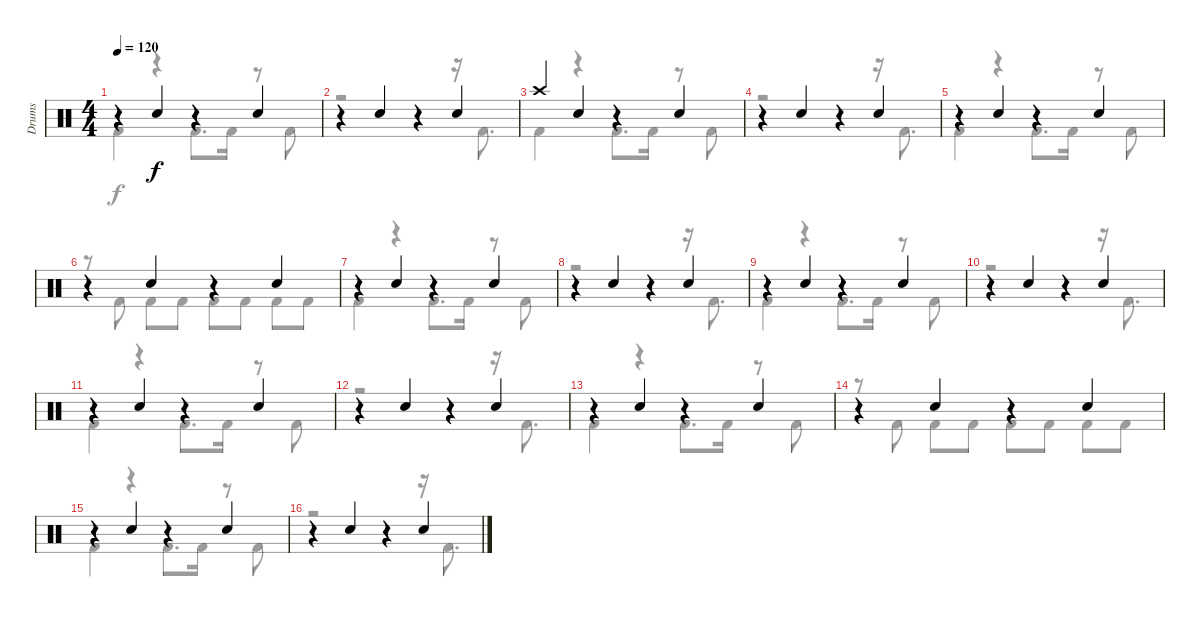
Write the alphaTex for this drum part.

\track ("Drums" "Drums") {instrument percussion}
\staff {score}
\articulation defaults
\voice
\ts (4 4)
\tempo 120
\clef neutral
\ks c
r.4{dy f} "Electric Snare (hit)".4 r.4 "Electric Snare (hit)".4 |
r.4 "Electric Snare (hit)".4 r.4 "Electric Snare (hit)".4 |
"Crash high (hit)".4 "Electric Snare (hit)".4 r.4 "Electric Snare (hit)".4 |
r.4 "Electric Snare (hit)".4 r.4 "Electric Snare (hit)".4 |
r.4 "Electric Snare (hit)".4 r.4 "Electric Snare (hit)".4 |
r.4 "Electric Snare (hit)".4 r.4 "Electric Snare (hit)".4 |
r.4 "Electric Snare (hit)".4 r.4 "Electric Snare (hit)".4 |
r.4 "Electric Snare (hit)".4 r.4 "Electric Snare (hit)".4 |
r.4 "Electric Snare (hit)".4 r.4 "Electric Snare (hit)".4 |
r.4 "Electric Snare (hit)".4 r.4 "Electric Snare (hit)".4 |
r.4 "Electric Snare (hit)".4 r.4 "Electric Snare (hit)".4 |
r.4 "Electric Snare (hit)".4 r.4 "Electric Snare (hit)".4 |
r.4 "Electric Snare (hit)".4 r.4 "Electric Snare (hit)".4 |
r.4 "Electric Snare (hit)".4 r.4 "Electric Snare (hit)".4 |
r.4 "Electric Snare (hit)".4 r.4 "Electric Snare (hit)".4 |
r.4 "Electric Snare (hit)".4 r.4 "Electric Snare (hit)".4
\voice
\clef neutral
\ottava regular
\simile none
\ks c "Kick (hit) 2".4{dy f}
r.4 "Kick (hit) 2".8{d} "Kick (hit) 2".16 r.8 "Kick (hit) 2".8 |
r.2 r.4 r.16 "Kick (hit) 2".8{d} |
"Kick (hit) 2".4 r.4 "Kick (hit) 2".8{d} "Kick (hit) 2".16 r.8 "Kick (hit) 2".8 |
r.2 r.4 r.16 "Kick (hit) 2".8{d} |
"Kick (hit) 2".4 r.4 "Kick (hit) 2".8{d} "Kick (hit) 2".16 r.8 "Kick (hit) 2".8 |
r.8 "Kick (hit) 2".8 "Kick (hit) 2".8 "Kick (hit) 2".8 "Kick (hit) 2".8 "Kick (hit) 2".8 "Kick (hit) 2".8 "Kick (hit) 2".8 |
"Kick (hit) 2".4 r.4 "Kick (hit) 2".8{d} "Kick (hit) 2".16 r.8 "Kick (hit) 2".8 |
r.2 r.4 r.16 "Kick (hit) 2".8{d} |
"Kick (hit) 2".4 r.4 "Kick (hit) 2".8{d} "Kick (hit) 2".16 r.8 "Kick (hit) 2".8 |
r.2 r.4 r.16 "Kick (hit) 2".8{d} |
"Kick (hit) 2".4 r.4 "Kick (hit) 2".8{d} "Kick (hit) 2".16 r.8 "Kick (hit) 2".8 |
r.2 r.4 r.16 "Kick (hit) 2".8{d} |
"Kick (hit) 2".4 r.4 "Kick (hit) 2".8{d} "Kick (hit) 2".16 r.8 "Kick (hit) 2".8 |
r.8 "Kick (hit) 2".8 "Kick (hit) 2".8 "Kick (hit) 2".8 "Kick (hit) 2".8 "Kick (hit) 2".8 "Kick (hit) 2".8 "Kick (hit) 2".8 |
"Kick (hit) 2".4 r.4 "Kick (hit) 2".8{d} "Kick (hit) 2".16 r.8 "Kick (hit) 2".8 |
r.2 r.4 r.16 "Kick (hit) 2".8{d}
